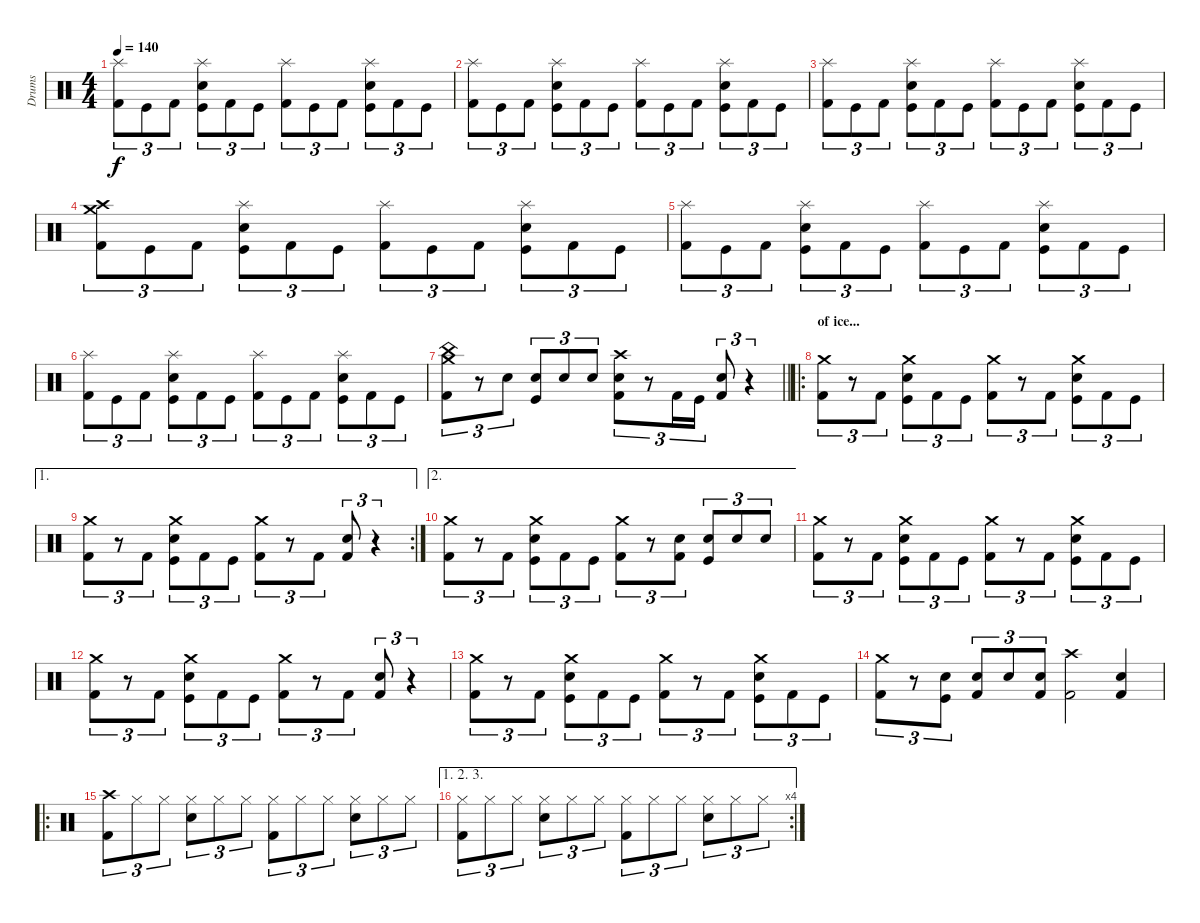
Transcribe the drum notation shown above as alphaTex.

\track ("Drums" "Drums") {instrument percussion}
\staff {score}
\articulation defaults
\ts (4 4)
\tempo 140
\clef neutral
\ks c
("Splash (hit)" "Kick (hit) 2").8{tu (3 2) dy f} "Kick (hit)".8{tu (3 2)} "Kick (hit) 2".8{tu (3 2)} ("Splash (hit)" "Snare (hit) 2" "Kick (hit)").8{tu (3 2)} "Kick (hit) 2".8{tu (3 2)} "Kick (hit)".8{tu (3 2)} ("Splash (hit)" "Kick (hit) 2").8{tu (3 2)} "Kick (hit)".8{tu (3 2)} "Kick (hit) 2".8{tu (3 2)} ("Splash (hit)" "Snare (hit) 2" "Kick (hit)").8{tu (3 2)} "Kick (hit) 2".8{tu (3 2)} "Kick (hit)".8{tu (3 2)} |
("Splash (hit)" "Kick (hit) 2").8{tu (3 2)} "Kick (hit)".8{tu (3 2)} "Kick (hit) 2".8{tu (3 2)} ("Splash (hit)" "Snare (hit) 2" "Kick (hit)").8{tu (3 2)} "Kick (hit) 2".8{tu (3 2)} "Kick (hit)".8{tu (3 2)} ("Splash (hit)" "Kick (hit) 2").8{tu (3 2)} "Kick (hit)".8{tu (3 2)} "Kick (hit) 2".8{tu (3 2)} ("Splash (hit)" "Snare (hit) 2" "Kick (hit)").8{tu (3 2)} "Kick (hit) 2".8{tu (3 2)} "Kick (hit)".8{tu (3 2)} |
("Splash (hit)" "Kick (hit) 2").8{tu (3 2)} "Kick (hit)".8{tu (3 2)} "Kick (hit) 2".8{tu (3 2)} ("Splash (hit)" "Snare (hit) 2" "Kick (hit)").8{tu (3 2)} "Kick (hit) 2".8{tu (3 2)} "Kick (hit)".8{tu (3 2)} ("Splash (hit)" "Kick (hit) 2").8{tu (3 2)} "Kick (hit)".8{tu (3 2)} "Kick (hit) 2".8{tu (3 2)} ("Splash (hit)" "Snare (hit) 2" "Kick (hit)").8{tu (3 2)} "Kick (hit) 2".8{tu (3 2)} "Kick (hit)".8{tu (3 2)} |
("Crash high (hit)" "Crash medium (hit)" "Kick (hit) 2").8{tu (3 2)} "Kick (hit)".8{tu (3 2)} "Kick (hit) 2".8{tu (3 2)} ("Splash (hit)" "Snare (hit) 2" "Kick (hit)").8{tu (3 2)} "Kick (hit) 2".8{tu (3 2)} "Kick (hit)".8{tu (3 2)} ("Splash (hit)" "Kick (hit) 2").8{tu (3 2)} "Kick (hit)".8{tu (3 2)} "Kick (hit) 2".8{tu (3 2)} ("Splash (hit)" "Snare (hit) 2" "Kick (hit)").8{tu (3 2)} "Kick (hit) 2".8{tu (3 2)} "Kick (hit)".8{tu (3 2)} |
("Splash (hit)" "Kick (hit) 2").8{tu (3 2)} "Kick (hit)".8{tu (3 2)} "Kick (hit) 2".8{tu (3 2)} ("Splash (hit)" "Snare (hit) 2" "Kick (hit)").8{tu (3 2)} "Kick (hit) 2".8{tu (3 2)} "Kick (hit)".8{tu (3 2)} ("Splash (hit)" "Kick (hit) 2").8{tu (3 2)} "Kick (hit)".8{tu (3 2)} "Kick (hit) 2".8{tu (3 2)} ("Splash (hit)" "Snare (hit) 2" "Kick (hit)").8{tu (3 2)} "Kick (hit) 2".8{tu (3 2)} "Kick (hit)".8{tu (3 2)} |
("Splash (hit)" "Kick (hit) 2").8{tu (3 2)} "Kick (hit)".8{tu (3 2)} "Kick (hit) 2".8{tu (3 2)} ("Splash (hit)" "Snare (hit) 2" "Kick (hit)").8{tu (3 2)} "Kick (hit) 2".8{tu (3 2)} "Kick (hit)".8{tu (3 2)} ("Splash (hit)" "Kick (hit) 2").8{tu (3 2)} "Kick (hit)".8{tu (3 2)} "Kick (hit) 2".8{tu (3 2)} ("Splash (hit)" "Snare (hit) 2" "Kick (hit)").8{tu (3 2)} "Kick (hit) 2".8{tu (3 2)} "Kick (hit)".8{tu (3 2)} |
\barLineRight lightlight
("China (hit)" "Crash medium (hit)" "Kick (hit) 2").8{tu (3 2)} r.8{tu (3 2)} "Snare (hit) 2".8{tu (3 2)} ("Snare (hit) 2" "Kick (hit)").8{tu (3 2)} "Snare (hit) 2".8{tu (3 2)} "Snare (hit) 2".8{tu (3 2)} ("Crash high (hit)" "Snare (hit) 2" "Kick (hit) 2").8{tu (3 2)} r.8{tu (3 2)} "Kick (hit) 2".16{tu (3 2)} "Kick (hit)".16{tu (3 2)} ("Snare (hit) 2" "Kick (hit) 2").8{tu (3 2)} r.4{tu (3 2)} |
\ro
\section ("" "of ice...")
("Crash medium (hit)" "Kick (hit) 2").8{tu (3 2)} r.8{tu (3 2)} "Kick (hit) 2".8{tu (3 2)} ("Crash medium (hit)" "Snare (hit) 2" "Kick (hit)").8{tu (3 2)} "Kick (hit) 2".8{tu (3 2)} "Kick (hit)".8{tu (3 2)} ("Crash medium (hit)" "Kick (hit) 2").8{tu (3 2)} r.8{tu (3 2)} "Kick (hit) 2".8{tu (3 2)} ("Crash medium (hit)" "Snare (hit) 2" "Kick (hit)").8{tu (3 2)} "Kick (hit) 2".8{tu (3 2)} "Kick (hit)".8{tu (3 2)} |
\ae 1
\rc 2
("Crash medium (hit)" "Kick (hit) 2").8{tu (3 2)} r.8{tu (3 2)} "Kick (hit) 2".8{tu (3 2)} ("Crash medium (hit)" "Snare (hit) 2" "Kick (hit)").8{tu (3 2)} "Kick (hit) 2".8{tu (3 2)} "Kick (hit)".8{tu (3 2)} ("Crash medium (hit)" "Kick (hit) 2").8{tu (3 2)} r.8{tu (3 2)} "Kick (hit) 2".8{tu (3 2)} ("Snare (hit) 2" "Kick (hit) 2").8{tu (3 2)} r.4{tu (3 2)} |
\ae 2
("Crash medium (hit)" "Kick (hit) 2").8{tu (3 2)} r.8{tu (3 2)} "Kick (hit) 2".8{tu (3 2)} ("Crash medium (hit)" "Snare (hit) 2" "Kick (hit)").8{tu (3 2)} "Kick (hit) 2".8{tu (3 2)} "Kick (hit)".8{tu (3 2)} ("Crash medium (hit)" "Kick (hit) 2").8{tu (3 2)} r.8{tu (3 2)} ("Snare (hit) 2" "Kick (hit) 2").8{tu (3 2)} ("Snare (hit) 2" "Kick (hit)").8{tu (3 2)} "Snare (hit) 2".8{tu (3 2)} "Snare (hit) 2".8{tu (3 2)} |
("Crash medium (hit)" "Kick (hit) 2").8{tu (3 2)} r.8{tu (3 2)} "Kick (hit) 2".8{tu (3 2)} ("Crash medium (hit)" "Snare (hit) 2" "Kick (hit)").8{tu (3 2)} "Kick (hit) 2".8{tu (3 2)} "Kick (hit)".8{tu (3 2)} ("Crash medium (hit)" "Kick (hit) 2").8{tu (3 2)} r.8{tu (3 2)} "Kick (hit) 2".8{tu (3 2)} ("Crash medium (hit)" "Snare (hit) 2" "Kick (hit)").8{tu (3 2)} "Kick (hit) 2".8{tu (3 2)} "Kick (hit)".8{tu (3 2)} |
("Crash medium (hit)" "Kick (hit) 2").8{tu (3 2)} r.8{tu (3 2)} "Kick (hit) 2".8{tu (3 2)} ("Crash medium (hit)" "Snare (hit) 2" "Kick (hit)").8{tu (3 2)} "Kick (hit) 2".8{tu (3 2)} "Kick (hit)".8{tu (3 2)} ("Crash medium (hit)" "Kick (hit) 2").8{tu (3 2)} r.8{tu (3 2)} "Kick (hit) 2".8{tu (3 2)} ("Snare (hit) 2" "Kick (hit) 2").8{tu (3 2)} r.4{tu (3 2)} |
("Crash medium (hit)" "Kick (hit) 2").8{tu (3 2)} r.8{tu (3 2)} "Kick (hit) 2".8{tu (3 2)} ("Crash medium (hit)" "Snare (hit) 2" "Kick (hit)").8{tu (3 2)} "Kick (hit) 2".8{tu (3 2)} "Kick (hit)".8{tu (3 2)} ("Crash medium (hit)" "Kick (hit) 2").8{tu (3 2)} r.8{tu (3 2)} "Kick (hit) 2".8{tu (3 2)} ("Crash medium (hit)" "Snare (hit) 2" "Kick (hit)").8{tu (3 2)} "Kick (hit) 2".8{tu (3 2)} "Kick (hit)".8{tu (3 2)} |
("Crash medium (hit)" "Kick (hit) 2").8{tu (3 2)} r.8{tu (3 2)} ("Snare (hit) 2" "Kick (hit)").8{tu (3 2)} ("Snare (hit) 2" "Kick (hit) 2").8{tu (3 2)} "Snare (hit) 2".8{tu (3 2)} ("Snare (hit) 2" "Kick (hit) 2").8{tu (3 2)} ("Crash high (hit)" "Kick (hit) 2").2 ("Snare (hit) 2" "Kick (hit) 2").4 |
\ro
("Crash high (hit)" "Kick (hit) 2").8{tu (3 2)} "Hi-Hat (closed)".8{tu (3 2)} "Hi-Hat (closed)".8{tu (3 2)} ("Hi-Hat (closed)" "Snare (hit) 2").8{tu (3 2)} "Hi-Hat (closed)".8{tu (3 2)} "Hi-Hat (closed)".8{tu (3 2)} ("Hi-Hat (closed)" "Kick (hit) 2").8{tu (3 2)} "Hi-Hat (closed)".8{tu (3 2)} "Hi-Hat (closed)".8{tu (3 2)} ("Hi-Hat (closed)" "Snare (hit) 2").8{tu (3 2)} "Hi-Hat (closed)".8{tu (3 2)} "Hi-Hat (closed)".8{tu (3 2)} |
\ae (1 2 3)
\rc 4
("Hi-Hat (closed)" "Kick (hit) 2").8{tu (3 2)} "Hi-Hat (closed)".8{tu (3 2)} "Hi-Hat (closed)".8{tu (3 2)} ("Hi-Hat (closed)" "Snare (hit) 2").8{tu (3 2)} "Hi-Hat (closed)".8{tu (3 2)} "Hi-Hat (closed)".8{tu (3 2)} ("Hi-Hat (closed)" "Kick (hit) 2").8{tu (3 2)} "Hi-Hat (closed)".8{tu (3 2)} "Hi-Hat (closed)".8{tu (3 2)} ("Hi-Hat (closed)" "Snare (hit) 2").8{tu (3 2)} "Hi-Hat (closed)".8{tu (3 2)} "Hi-Hat (closed)".8{tu (3 2)}
